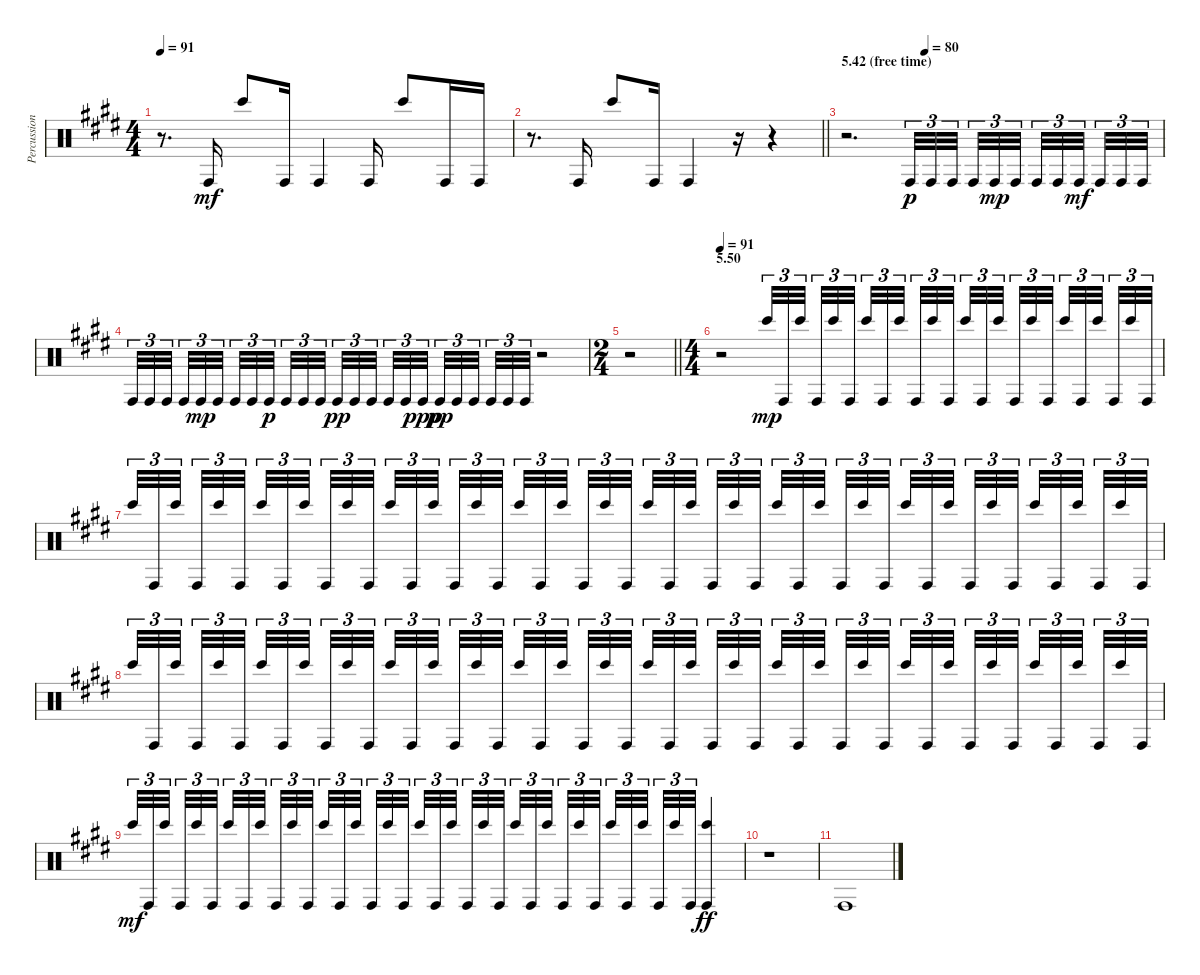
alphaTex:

\track ("Percussion" "Percussion") {instrument percussion}
\staff {score}
\articulation defaults
\ts (4 4)
\tempo 91
\clef neutral
\ks e
r.8{d dy mf} "Conga high (hit)".16 "Bongo High (hit)".8 "Conga high (hit)".16 "Conga high (hit)".4 "Conga high (hit)".16 "Bongo High (hit)".8 "Conga high (hit)".16 "Conga high (hit)".16 |
\barLineRight lightlight
r.8{d} "Conga high (hit)".16 "Bongo High (hit)".8 "Conga high (hit)".16 "Conga high (hit)".4 r.16 r.4 |
\section ("" "5.42 (free time)")
\tempo (80 0.25)
r.2{d} "Conga high (hit)".32{tu (3 2) dy p} "Conga high (hit)".32{tu (3 2)} "Conga high (hit)".32{tu (3 2) beam splitsecondary} "Conga high (hit)".32{tu (3 2)} "Conga high (hit)".32{tu (3 2) dy mp} "Conga high (hit)".32{tu (3 2) beam splitsecondary} "Conga high (hit)".32{tu (3 2)} "Conga high (hit)".32{tu (3 2)} "Conga high (hit)".32{tu (3 2) dy mf beam splitsecondary} "Conga high (hit)".32{tu (3 2)} "Conga high (hit)".32{tu (3 2)} "Conga high (hit)".32{tu (3 2)} |
"Conga high (hit)".32{tu (3 2)} "Conga high (hit)".32{tu (3 2)} "Conga high (hit)".32{tu (3 2) beam splitsecondary} "Conga high (hit)".32{tu (3 2)} "Conga high (hit)".32{tu (3 2) dy mp} "Conga high (hit)".32{tu (3 2) beam splitsecondary} "Conga high (hit)".32{tu (3 2)} "Conga high (hit)".32{tu (3 2)} "Conga high (hit)".32{tu (3 2) dy p beam splitsecondary} "Conga high (hit)".32{tu (3 2)} "Conga high (hit)".32{tu (3 2)} "Conga high (hit)".32{tu (3 2)} "Conga high (hit)".32{tu (3 2) dy pp} "Conga high (hit)".32{tu (3 2)} "Conga high (hit)".32{tu (3 2) beam splitsecondary} "Conga high (hit)".32{tu (3 2)} "Conga high (hit)".32{tu (3 2)} "Conga high (hit)".32{tu (3 2) dy ppp beam splitsecondary} "Conga high (hit)".32{tu (3 2) dy pp} "Conga high (hit)".32{tu (3 2)} "Conga high (hit)".32{tu (3 2) beam splitsecondary} "Conga high (hit)".32{tu (3 2)} "Conga high (hit)".32{tu (3 2)} "Conga high (hit)".32{tu (3 2)} r.2 |
\ts (2 4)
\barLineRight lightlight
r.2 |
\ts (4 4)
\section ("" "5.50")
\tempo 91
r.2 "Bongo High (hit)".32{tu (3 2) dy mp} "Conga high (hit)".32{tu (3 2)} "Bongo High (hit)".32{tu (3 2) beam splitsecondary} "Conga high (hit)".32{tu (3 2)} "Bongo High (hit)".32{tu (3 2)} "Conga high (hit)".32{tu (3 2) beam splitsecondary} "Bongo High (hit)".32{tu (3 2)} "Conga high (hit)".32{tu (3 2)} "Bongo High (hit)".32{tu (3 2) beam splitsecondary} "Conga high (hit)".32{tu (3 2)} "Bongo High (hit)".32{tu (3 2)} "Conga high (hit)".32{tu (3 2)} "Bongo High (hit)".32{tu (3 2)} "Conga high (hit)".32{tu (3 2)} "Bongo High (hit)".32{tu (3 2) beam splitsecondary} "Conga high (hit)".32{tu (3 2)} "Bongo High (hit)".32{tu (3 2)} "Conga high (hit)".32{tu (3 2) beam splitsecondary} "Bongo High (hit)".32{tu (3 2)} "Conga high (hit)".32{tu (3 2)} "Bongo High (hit)".32{tu (3 2) beam splitsecondary} "Conga high (hit)".32{tu (3 2)} "Bongo High (hit)".32{tu (3 2)} "Conga high (hit)".32{tu (3 2)} |
"Bongo High (hit)".32{tu (3 2)} "Conga high (hit)".32{tu (3 2)} "Bongo High (hit)".32{tu (3 2) beam splitsecondary} "Conga high (hit)".32{tu (3 2)} "Bongo High (hit)".32{tu (3 2)} "Conga high (hit)".32{tu (3 2) beam splitsecondary} "Bongo High (hit)".32{tu (3 2)} "Conga high (hit)".32{tu (3 2)} "Bongo High (hit)".32{tu (3 2) beam splitsecondary} "Conga high (hit)".32{tu (3 2)} "Bongo High (hit)".32{tu (3 2)} "Conga high (hit)".32{tu (3 2)} "Bongo High (hit)".32{tu (3 2)} "Conga high (hit)".32{tu (3 2)} "Bongo High (hit)".32{tu (3 2) beam splitsecondary} "Conga high (hit)".32{tu (3 2)} "Bongo High (hit)".32{tu (3 2)} "Conga high (hit)".32{tu (3 2) beam splitsecondary} "Bongo High (hit)".32{tu (3 2)} "Conga high (hit)".32{tu (3 2)} "Bongo High (hit)".32{tu (3 2) beam splitsecondary} "Conga high (hit)".32{tu (3 2)} "Bongo High (hit)".32{tu (3 2)} "Conga high (hit)".32{tu (3 2)} "Bongo High (hit)".32{tu (3 2)} "Conga high (hit)".32{tu (3 2)} "Bongo High (hit)".32{tu (3 2) beam splitsecondary} "Conga high (hit)".32{tu (3 2)} "Bongo High (hit)".32{tu (3 2)} "Conga high (hit)".32{tu (3 2) beam splitsecondary} "Bongo High (hit)".32{tu (3 2)} "Conga high (hit)".32{tu (3 2)} "Bongo High (hit)".32{tu (3 2) beam splitsecondary} "Conga high (hit)".32{tu (3 2)} "Bongo High (hit)".32{tu (3 2)} "Conga high (hit)".32{tu (3 2)} "Bongo High (hit)".32{tu (3 2)} "Conga high (hit)".32{tu (3 2)} "Bongo High (hit)".32{tu (3 2) beam splitsecondary} "Conga high (hit)".32{tu (3 2)} "Bongo High (hit)".32{tu (3 2)} "Conga high (hit)".32{tu (3 2) beam splitsecondary} "Bongo High (hit)".32{tu (3 2)} "Conga high (hit)".32{tu (3 2)} "Bongo High (hit)".32{tu (3 2) beam splitsecondary} "Conga high (hit)".32{tu (3 2)} "Bongo High (hit)".32{tu (3 2)} "Conga high (hit)".32{tu (3 2)} |
"Bongo High (hit)".32{tu (3 2)} "Conga high (hit)".32{tu (3 2)} "Bongo High (hit)".32{tu (3 2) beam splitsecondary} "Conga high (hit)".32{tu (3 2)} "Bongo High (hit)".32{tu (3 2)} "Conga high (hit)".32{tu (3 2) beam splitsecondary} "Bongo High (hit)".32{tu (3 2)} "Conga high (hit)".32{tu (3 2)} "Bongo High (hit)".32{tu (3 2) beam splitsecondary} "Conga high (hit)".32{tu (3 2)} "Bongo High (hit)".32{tu (3 2)} "Conga high (hit)".32{tu (3 2)} "Bongo High (hit)".32{tu (3 2)} "Conga high (hit)".32{tu (3 2)} "Bongo High (hit)".32{tu (3 2) beam splitsecondary} "Conga high (hit)".32{tu (3 2)} "Bongo High (hit)".32{tu (3 2)} "Conga high (hit)".32{tu (3 2) beam splitsecondary} "Bongo High (hit)".32{tu (3 2)} "Conga high (hit)".32{tu (3 2)} "Bongo High (hit)".32{tu (3 2) beam splitsecondary} "Conga high (hit)".32{tu (3 2)} "Bongo High (hit)".32{tu (3 2)} "Conga high (hit)".32{tu (3 2)} "Bongo High (hit)".32{tu (3 2)} "Conga high (hit)".32{tu (3 2)} "Bongo High (hit)".32{tu (3 2) beam splitsecondary} "Conga high (hit)".32{tu (3 2)} "Bongo High (hit)".32{tu (3 2)} "Conga high (hit)".32{tu (3 2) beam splitsecondary} "Bongo High (hit)".32{tu (3 2)} "Conga high (hit)".32{tu (3 2)} "Bongo High (hit)".32{tu (3 2) beam splitsecondary} "Conga high (hit)".32{tu (3 2)} "Bongo High (hit)".32{tu (3 2)} "Conga high (hit)".32{tu (3 2)} "Bongo High (hit)".32{tu (3 2)} "Conga high (hit)".32{tu (3 2)} "Bongo High (hit)".32{tu (3 2) beam splitsecondary} "Conga high (hit)".32{tu (3 2)} "Bongo High (hit)".32{tu (3 2)} "Conga high (hit)".32{tu (3 2) beam splitsecondary} "Bongo High (hit)".32{tu (3 2)} "Conga high (hit)".32{tu (3 2)} "Bongo High (hit)".32{tu (3 2) beam splitsecondary} "Conga high (hit)".32{tu (3 2)} "Bongo High (hit)".32{tu (3 2)} "Conga high (hit)".32{tu (3 2)} |
"Bongo High (hit)".32{tu (3 2) dy mf} "Conga high (hit)".32{tu (3 2)} "Bongo High (hit)".32{tu (3 2) beam splitsecondary} "Conga high (hit)".32{tu (3 2)} "Bongo High (hit)".32{tu (3 2)} "Conga high (hit)".32{tu (3 2) beam splitsecondary} "Bongo High (hit)".32{tu (3 2)} "Conga high (hit)".32{tu (3 2)} "Bongo High (hit)".32{tu (3 2) beam splitsecondary} "Conga high (hit)".32{tu (3 2)} "Bongo High (hit)".32{tu (3 2)} "Conga high (hit)".32{tu (3 2)} "Bongo High (hit)".32{tu (3 2)} "Conga high (hit)".32{tu (3 2)} "Bongo High (hit)".32{tu (3 2) beam splitsecondary} "Conga high (hit)".32{tu (3 2)} "Bongo High (hit)".32{tu (3 2)} "Conga high (hit)".32{tu (3 2) beam splitsecondary} "Bongo High (hit)".32{tu (3 2)} "Conga high (hit)".32{tu (3 2)} "Bongo High (hit)".32{tu (3 2) beam splitsecondary} "Conga high (hit)".32{tu (3 2)} "Bongo High (hit)".32{tu (3 2)} "Conga high (hit)".32{tu (3 2)} "Bongo High (hit)".32{tu (3 2)} "Conga high (hit)".32{tu (3 2)} "Bongo High (hit)".32{tu (3 2) beam splitsecondary} "Conga high (hit)".32{tu (3 2)} "Bongo High (hit)".32{tu (3 2)} "Conga high (hit)".32{tu (3 2) beam splitsecondary} "Bongo High (hit)".32{tu (3 2)} "Conga high (hit)".32{tu (3 2)} "Bongo High (hit)".32{tu (3 2) beam splitsecondary} "Conga high (hit)".32{tu (3 2)} "Bongo High (hit)".32{tu (3 2)} "Conga high (hit)".32{tu (3 2)} ("Bongo High (hit)" "Conga high (hit)").4{dy ff} |
r.1 |
"Conga high (hit)".1
